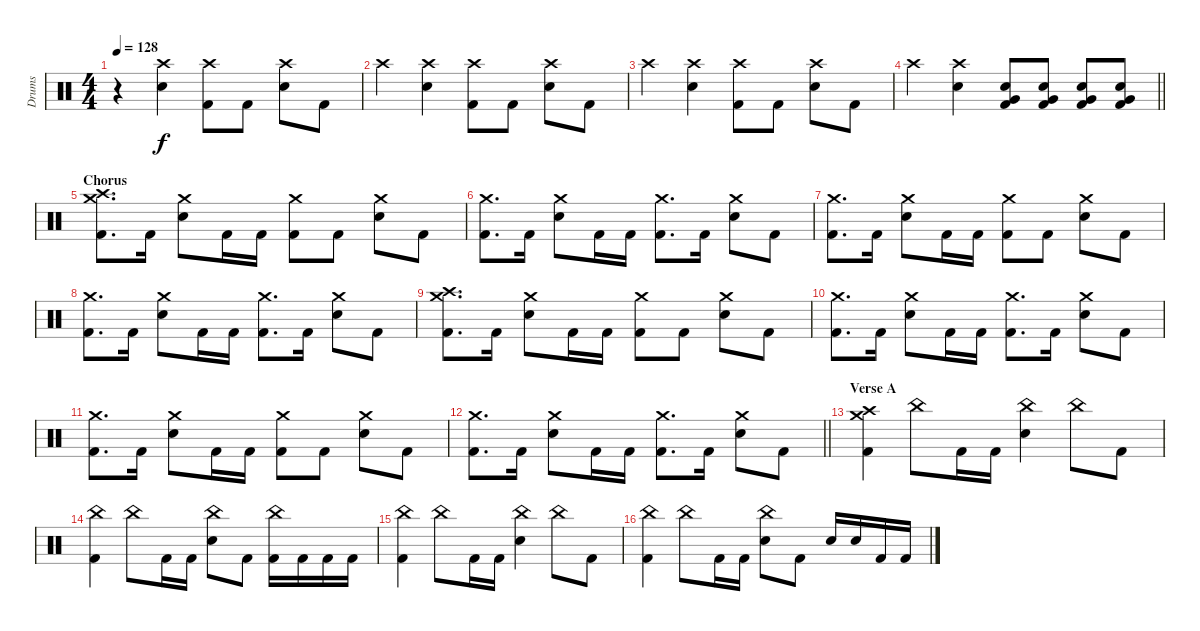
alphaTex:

\track ("Drums" "Drums") {instrument percussion}
\staff {score}
\articulation defaults
\ts (4 4)
\tempo 128
\clef neutral
\ks c
r.4{dy f} ("Snare (hit) 2" "Crash high (hit)").4 ("Kick (hit) 2" "Crash high (hit)").8 "Kick (hit) 2".8 ("Snare (hit) 2" "Crash high (hit)").8 "Kick (hit) 2".8 |
"Crash high (hit)".4 ("Snare (hit) 2" "Crash high (hit)").4 ("Kick (hit) 2" "Crash high (hit)").8 "Kick (hit) 2".8 ("Snare (hit) 2" "Crash high (hit)").8 "Kick (hit) 2".8 |
"Crash high (hit)".4 ("Snare (hit) 2" "Crash high (hit)").4 ("Kick (hit) 2" "Crash high (hit)").8 "Kick (hit) 2".8 ("Snare (hit) 2" "Crash high (hit)").8 "Kick (hit) 2".8 |
\barLineRight lightlight "Crash high (hit)".4
("Snare (hit) 2" "Crash high (hit)").4 ("Kick (hit) 2" "Snare (hit) 2" "Very Low Tom (hit)").8 ("Kick (hit) 2" "Snare (hit) 2" "Very Low Tom (hit)").8 ("Kick (hit) 2" "Snare (hit) 2" "Very Low Tom (hit)").8 ("Kick (hit) 2" "Snare (hit) 2" "Very Low Tom (hit)").8 |
\section ("" "Chorus")
("Kick (hit) 2" "Crash high (hit)" "Crash medium (hit)").8{d} "Kick (hit) 2".16 ("Snare (hit) 2" "Crash medium (hit)").8 "Kick (hit) 2".16 "Kick (hit) 2".16 ("Kick (hit) 2" "Crash medium (hit)").8 "Kick (hit) 2".8 ("Snare (hit) 2" "Crash medium (hit)").8 "Kick (hit) 2".8 |
("Kick (hit) 2" "Crash medium (hit)").8{d} "Kick (hit) 2".16 ("Snare (hit) 2" "Crash medium (hit)").8 "Kick (hit) 2".16 "Kick (hit) 2".16 ("Kick (hit) 2" "Crash medium (hit)").8{d} "Kick (hit) 2".16 ("Snare (hit) 2" "Crash medium (hit)").8 "Kick (hit) 2".8 |
("Kick (hit) 2" "Crash medium (hit)").8{d} "Kick (hit) 2".16 ("Snare (hit) 2" "Crash medium (hit)").8 "Kick (hit) 2".16 "Kick (hit) 2".16 ("Kick (hit) 2" "Crash medium (hit)").8 "Kick (hit) 2".8 ("Snare (hit) 2" "Crash medium (hit)").8 "Kick (hit) 2".8 |
("Kick (hit) 2" "Crash medium (hit)").8{d} "Kick (hit) 2".16 ("Snare (hit) 2" "Crash medium (hit)").8 "Kick (hit) 2".16 "Kick (hit) 2".16 ("Kick (hit) 2" "Crash medium (hit)").8{d} "Kick (hit) 2".16 ("Snare (hit) 2" "Crash medium (hit)").8 "Kick (hit) 2".8 |
("Kick (hit) 2" "Crash high (hit)" "Crash medium (hit)").8{d} "Kick (hit) 2".16 ("Snare (hit) 2" "Crash medium (hit)").8 "Kick (hit) 2".16 "Kick (hit) 2".16 ("Kick (hit) 2" "Crash medium (hit)").8 "Kick (hit) 2".8 ("Snare (hit) 2" "Crash medium (hit)").8 "Kick (hit) 2".8 |
("Kick (hit) 2" "Crash medium (hit)").8{d} "Kick (hit) 2".16 ("Snare (hit) 2" "Crash medium (hit)").8 "Kick (hit) 2".16 "Kick (hit) 2".16 ("Kick (hit) 2" "Crash medium (hit)").8{d} "Kick (hit) 2".16 ("Snare (hit) 2" "Crash medium (hit)").8 "Kick (hit) 2".8 |
("Kick (hit) 2" "Crash medium (hit)").8{d} "Kick (hit) 2".16 ("Snare (hit) 2" "Crash medium (hit)").8 "Kick (hit) 2".16 "Kick (hit) 2".16 ("Kick (hit) 2" "Crash medium (hit)").8 "Kick (hit) 2".8 ("Snare (hit) 2" "Crash medium (hit)").8 "Kick (hit) 2".8 |
\barLineRight lightlight
("Kick (hit) 2" "Crash medium (hit)").8{d} "Kick (hit) 2".16 ("Snare (hit) 2" "Crash medium (hit)").8 "Kick (hit) 2".16 "Kick (hit) 2".16 ("Kick (hit) 2" "Crash medium (hit)").8{d} "Kick (hit) 2".16 ("Snare (hit) 2" "Crash medium (hit)").8 "Kick (hit) 2".8 |
\section ("" "Verse A")
("Kick (hit) 2" "Crash high (hit)" "Crash medium (hit)").4 "China (hit)".8 "Kick (hit) 2".16 "Kick (hit) 2".16 ("Snare (hit) 2" "China (hit)").4 "China (hit)".8 "Kick (hit) 2".8 |
("Kick (hit) 2" "China (hit)").4 "China (hit)".8 "Kick (hit) 2".16 "Kick (hit) 2".16 ("Snare (hit) 2" "China (hit)").8 "Kick (hit) 2".8 ("Kick (hit) 2" "China (hit)").16 "Kick (hit) 2".16 "Kick (hit) 2".16 "Kick (hit) 2".16 |
("Kick (hit) 2" "China (hit)").4 "China (hit)".8 "Kick (hit) 2".16 "Kick (hit) 2".16 ("Snare (hit) 2" "China (hit)").4 "China (hit)".8 "Kick (hit) 2".8 |
("Kick (hit) 2" "China (hit)").4 "China (hit)".8 "Kick (hit) 2".16 "Kick (hit) 2".16 ("Snare (hit) 2" "China (hit)").8 "Kick (hit) 2".8 "Snare (hit) 2".16 "Snare (hit) 2".16 "Kick (hit) 2".16 "Kick (hit) 2".16
